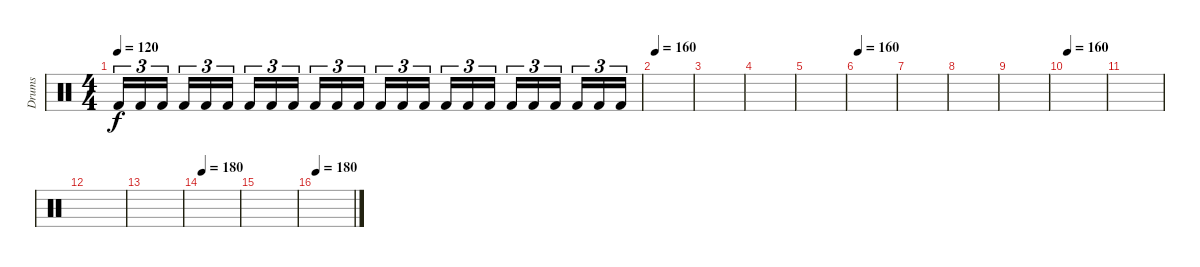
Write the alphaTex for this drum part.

\track ("Drums" "Drums") {instrument percussion}
\staff {score}
\articulation defaults
\ts (4 4)
\tempo 120
\clef neutral
\ks c "Kick (hit) 2".16{tu (3 2) dy f} "Kick (hit) 2".16{tu (3 2)} "Kick (hit) 2".16{tu (3 2)} "Kick (hit) 2".16{tu (3 2)} "Kick (hit) 2".16{tu (3 2)} "Kick (hit) 2".16{tu (3 2)} "Kick (hit) 2".16{tu (3 2)} "Kick (hit) 2".16{tu (3 2)} "Kick (hit) 2".16{tu (3 2)} "Kick (hit) 2".16{tu (3 2)} "Kick (hit) 2".16{tu (3 2)} "Kick (hit) 2".16{tu (3 2)} "Kick (hit) 2".16{tu (3 2)} "Kick (hit) 2".16{tu (3 2)} "Kick (hit) 2".16{tu (3 2)} "Kick (hit) 2".16{tu (3 2)} "Kick (hit) 2".16{tu (3 2)} "Kick (hit) 2".16{tu (3 2)} "Kick (hit) 2".16{tu (3 2)} "Kick (hit) 2".16{tu (3 2)} "Kick (hit) 2".16{tu (3 2)} "Kick (hit) 2".16{tu (3 2)} "Kick (hit) 2".16{tu (3 2)} "Kick (hit) 2".16{tu (3 2)}
|
\tempo 160
|
|
|
|
\tempo 160
|
|
|
|
\tempo 160
|
|
|
|
\tempo 180
|
|
\tempo 180
